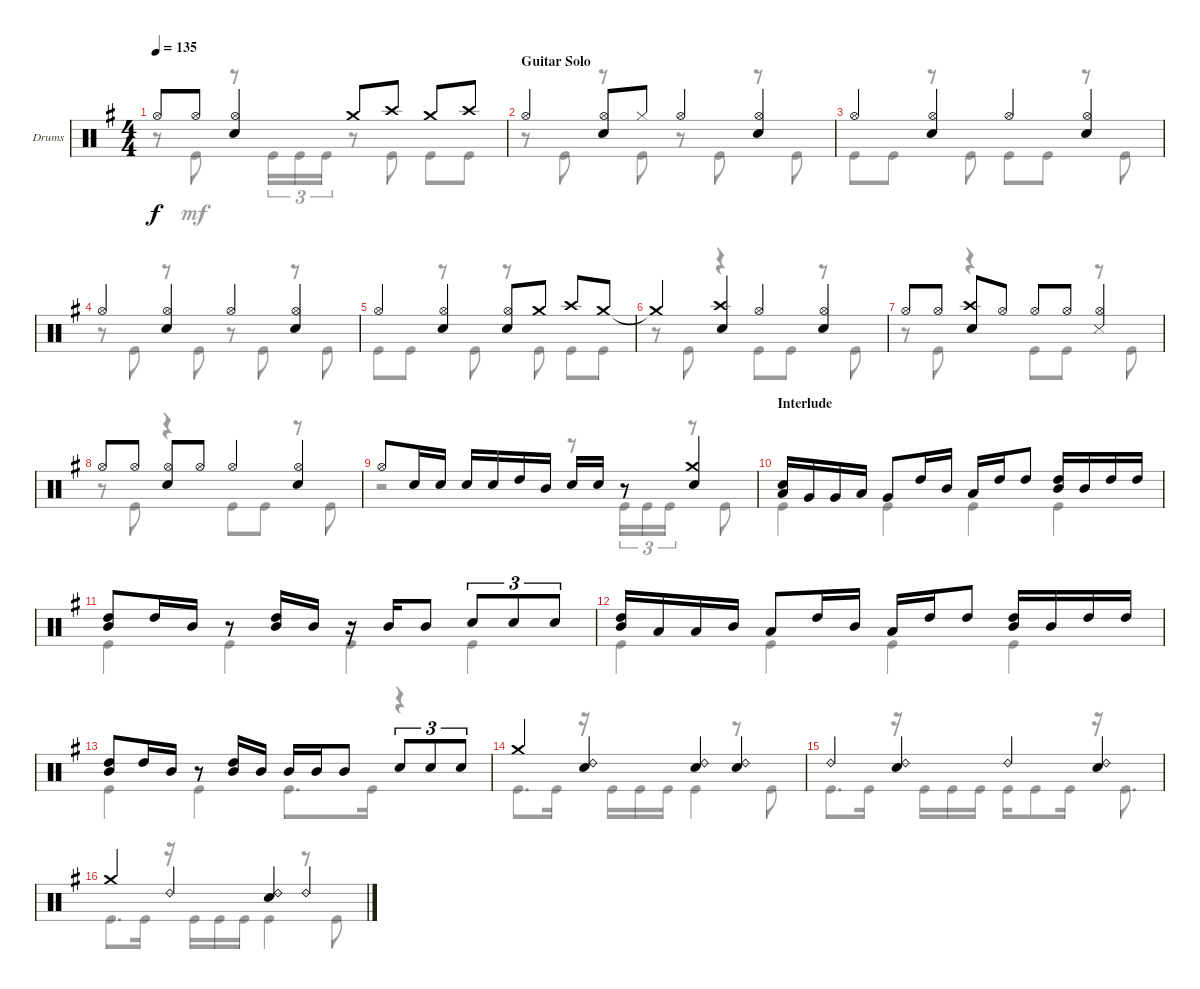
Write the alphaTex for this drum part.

\defaultSystemsLayout 4
\bracketExtendMode groupsimilarinstruments
\firstSystemTrackNameOrientation horizontal
\otherSystemsTrackNameOrientation horizontal
\track ("Drumkit" "Drums") {instrument percussion}
\staff {score}
\articulation defaults
\voice
\ts (4 4)
\tempo 135
\clef neutral
\ks g "Hi-Hat (open)".8{dy f} "Hi-Hat (open)".8
("Hi-Hat (open)" "Snare (hit) 2").4 "Crash medium (hit)".8 "Crash high (hit)".8 "Crash medium (hit)".8 "Crash high (hit)".8 |
\section ("" "Guitar Solo")
"Hi-Hat (open)".4 ("Hi-Hat (open)" "Snare (hit) 2").8 "Hi-Hat (closed)".8 "Hi-Hat (open)".4 ("Hi-Hat (open)" "Snare (hit) 2").4 |
"Hi-Hat (open)".4 ("Hi-Hat (open)" "Snare (hit) 2").4 "Hi-Hat (open)".4 ("Hi-Hat (open)" "Snare (hit) 2").4 |
"Hi-Hat (open)".4 ("Hi-Hat (open)" "Snare (hit) 2").4 "Hi-Hat (open)".4 ("Hi-Hat (open)" "Snare (hit) 2").4 |
"Hi-Hat (open)".4 ("Hi-Hat (open)" "Snare (hit) 2").4 ("Hi-Hat (open)" "Snare (hit) 2").8 "Crash medium (hit)".8 "Crash high (hit)".8 "Crash medium (hit)".8 |
"Crash medium (hit)"{t}.4 ("Crash high (hit)" "Snare (hit) 2").4 "Hi-Hat (open)".4 ("Hi-Hat (open)" "Snare (hit) 2").4 |
"Hi-Hat (open)".8 "Hi-Hat (open)".8 ("Crash high (hit)" "Snare (hit) 2").8 "Hi-Hat (open)".8 "Hi-Hat (open)".8 "Hi-Hat (open)".8 ("Hi-Hat (open)" "Snare (side stick) 3").4 |
"Hi-Hat (open)".8 "Hi-Hat (open)".8 ("Hi-Hat (open)" "Snare (hit) 2").8 "Hi-Hat (open)".8 "Hi-Hat (open)".4 ("Hi-Hat (open)" "Snare (hit) 2").4 |
"Hi-Hat (open)".8 "Snare (hit) 2".16 "Snare (hit) 2".16 "Snare (hit) 2".16 "Snare (hit) 2".16 "High Tom (hit)".16 "Mid Tom (hit)".16 "Snare (hit) 2".16 "Snare (hit) 2".16 r.8 ("Crash medium (hit)" "Snare (hit) 2").4 |
\section ("" "Interlude")
("Snare (hit) 2" "Low Tom (hit)").16 "Very Low Tom (hit)".16 "Very Low Tom (hit)".16 "Low Tom (hit)".16 "Very Low Tom (hit)".8 "High Tom (hit)".16 "Mid Tom (hit)".16 "Low Tom (hit)".16 "High Tom (hit)".16 "High Tom (hit)".8 ("High Tom (hit)" "Mid Tom (hit)").16 "Mid Tom (hit)".16 "High Tom (hit)".16 "High Tom (hit)".16 |
("High Tom (hit)" "Mid Tom (hit)").8 "High Tom (hit)".16 "Mid Tom (hit)".16 r.8 ("Mid Tom (hit)" "High Tom (hit)").16 "Mid Tom (hit)".16 r.16 "Mid Tom (hit)".16 "Mid Tom (hit)".8 "Snare (hit) 2".8{tu (3 2)} "Snare (hit) 2".8{tu (3 2)} "Snare (hit) 2".8{tu (3 2)} |
("High Tom (hit)" "Mid Tom (hit)").16 "Low Tom (hit)".16 "Low Tom (hit)".16 "Mid Tom (hit)".16 "Low Tom (hit)".8 "High Tom (hit)".16 "Mid Tom (hit)".16 "Low Tom (hit)".16 "High Tom (hit)".16 "High Tom (hit)".8 ("High Tom (hit)" "Mid Tom (hit)").16 "Mid Tom (hit)".16 "High Tom (hit)".16 "High Tom (hit)".16 |
("High Tom (hit)" "Mid Tom (hit)").8 "High Tom (hit)".16 "Mid Tom (hit)".16 r.8 ("Mid Tom (hit)" "High Tom (hit)").16 "Mid Tom (hit)".16 "Mid Tom (hit)".16 "Mid Tom (hit)".16 "Mid Tom (hit)".8 "Snare (hit) 2".8{tu (3 2)} "Snare (hit) 2".8{tu (3 2)} "Snare (hit) 2".8{tu (3 2)} |
"Crash medium (hit)".4 ("Ride (bell) 2" "Snare (hit) 2").4 ("Ride (bell) 2" "Snare (hit) 2").4 ("Ride (bell) 2" "Snare (hit) 2").4 |
"Ride (bell) 2".4 ("Ride (bell) 2" "Snare (hit) 2").4 "Ride (bell) 2".4 ("Ride (bell) 2" "Snare (hit) 2").4 |
"Crash medium (hit)".4 "Ride (bell) 2".4 ("Ride (bell) 2" "Snare (hit) 2").4 "Ride (bell) 2".4
\voice
\clef neutral
\ottava regular
\simile none
\ks g
r.8{dy mf} "Kick (hit)".8 r.8 "Kick (hit)".16{tu (3 2)} "Kick (hit)".16{tu (3 2)} "Kick (hit)".16{tu (3 2)} r.8 "Kick (hit)".8 "Kick (hit)".8 "Kick (hit)".8 |
r.8 "Kick (hit)".8 r.8 "Kick (hit)".8 r.8 "Kick (hit)".8 r.8 "Kick (hit)".8 |
"Kick (hit)".8 "Kick (hit)".8 r.8 "Kick (hit)".8 "Kick (hit)".8 "Kick (hit)".8 r.8 "Kick (hit)".8 |
r.8 "Kick (hit)".8 r.8 "Kick (hit)".8 r.8 "Kick (hit)".8 r.8 "Kick (hit)".8 |
"Kick (hit)".8 "Kick (hit)".8 r.8 "Kick (hit)".8 r.8 "Kick (hit)".8 "Kick (hit)".8 "Kick (hit)".8 |
r.8 "Kick (hit)".8 r.4 "Kick (hit)".8 "Kick (hit)".8 r.8 "Kick (hit)".8 |
r.8 "Kick (hit)".8 r.4 "Kick (hit)".8 "Kick (hit)".8 r.8 "Kick (hit)".8 |
r.8 "Kick (hit)".8 r.4 "Kick (hit)".8 "Kick (hit)".8 r.8 "Kick (hit)".8 |
r.2 r.8 "Kick (hit)".16{tu (3 2)} "Kick (hit)".16{tu (3 2)} "Kick (hit)".16{tu (3 2)} r.8 "Kick (hit)".8 |
"Kick (hit)".4 "Kick (hit)".4 "Kick (hit)".4 "Kick (hit)".4 |
"Kick (hit)".4 "Kick (hit)".4 "Kick (hit)".4 "Kick (hit)".4 |
"Kick (hit)".4 "Kick (hit)".4 "Kick (hit)".4 "Kick (hit)".4 |
"Kick (hit)".4 "Kick (hit)".4 "Kick (hit)".8{d} "Kick (hit)".16 r.4 |
"Kick (hit)".8{d} "Kick (hit)".16 r.16 "Kick (hit)".16 "Kick (hit)".16 "Kick (hit)".16 "Kick (hit)".4 r.8 "Kick (hit)".8 |
"Kick (hit)".8{d} "Kick (hit)".16 r.16 "Kick (hit)".16 "Kick (hit)".16 "Kick (hit)".16 "Kick (hit)".16 "Kick (hit)".8 "Kick (hit)".16 r.16 "Kick (hit)".8{d} |
"Kick (hit)".8{d} "Kick (hit)".16 r.16 "Kick (hit)".16 "Kick (hit)".16 "Kick (hit)".16 "Kick (hit)".4 r.8 "Kick (hit)".8
